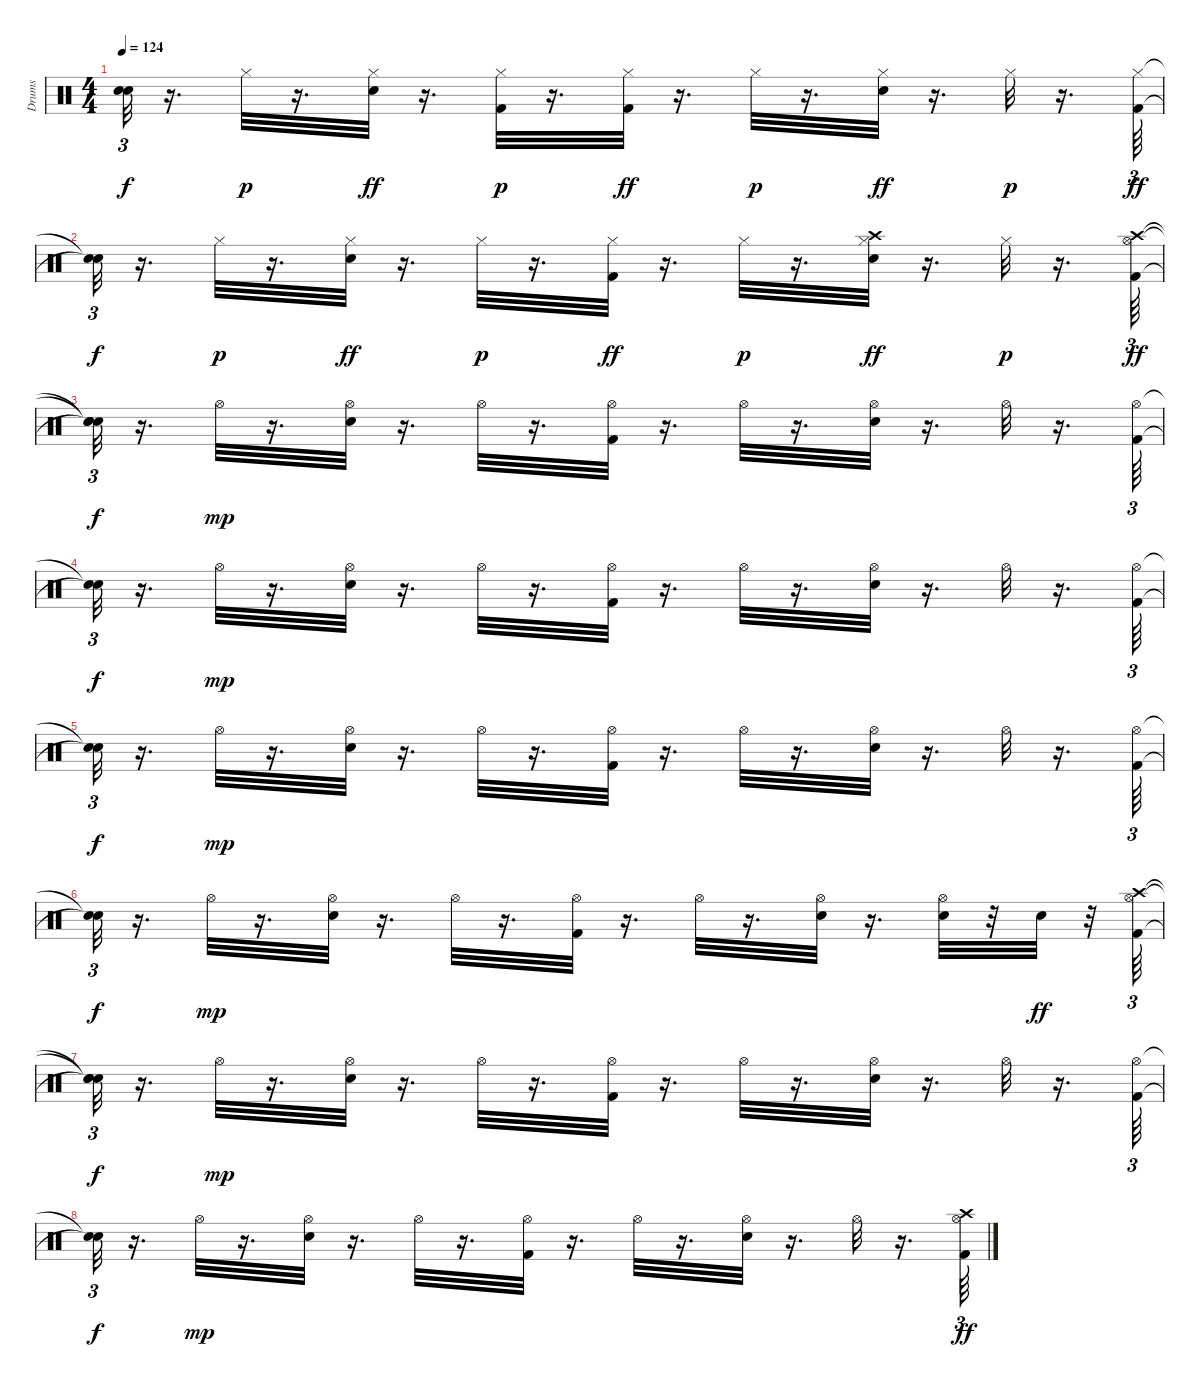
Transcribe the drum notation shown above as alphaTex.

\track ("Drums" "Drums") {instrument percussion}
\staff {score}
\articulation defaults
\ts (4 4)
\tempo 124
\clef neutral
\ks c
("Snare (hit)"{t} "Snare (hit)"{t}).32{tu (3 2) dy f} r.16{d} "Hi-Hat (closed)".32{dy p} r.16{d} ("Snare (hit) 2" "Hi-Hat (closed)").32{dy ff} r.16{d} ("Kick (hit) 2" "Hi-Hat (closed)").32{dy p} r.16{d} ("Kick (hit) 2" "Hi-Hat (closed)").32{dy ff} r.16{d} "Hi-Hat (closed)".32{dy p} r.16{d} ("Snare (hit) 2" "Hi-Hat (closed)").32{dy ff} r.16{d} "Hi-Hat (closed)".32{dy p} r.16{d} ("Kick (hit) 2" "Hi-Hat (closed)").64{tu (3 2) dy ff} |
("Snare (hit)"{t} "Snare (hit)"{t}).32{tu (3 2) dy f} r.16{d} "Hi-Hat (closed)".32{dy p} r.16{d} ("Snare (hit) 2" "Hi-Hat (closed)").32{dy ff} r.16{d} "Hi-Hat (closed)".32{dy p} r.16{d} ("Kick (hit) 2" "Hi-Hat (closed)").32{dy ff} r.16{d} "Hi-Hat (closed)".32{dy p} r.16{d} ("Snare (hit) 2" "Hi-Hat (closed)" "Crash high (hit)").32{dy ff} r.16{d} "Hi-Hat (closed)".32{dy p} r.16{d} ("Kick (hit) 2" "Hi-Hat (open)" "Crash high (hit)").64{tu (3 2) dy ff} |
("Snare (hit)"{t} "Snare (hit)"{t} "Snare (hit)"{t}).32{tu (3 2) dy f} r.16{d} "Hi-Hat (open)".32{dy mp} r.16{d} ("Snare (hit) 2" "Hi-Hat (open)").32 r.16{d} "Hi-Hat (open)".32 r.16{d} ("Kick (hit) 2" "Hi-Hat (open)").32 r.16{d} "Hi-Hat (open)".32 r.16{d} ("Snare (hit) 2" "Hi-Hat (open)").32 r.16{d} "Hi-Hat (open)".32 r.16{d} ("Kick (hit) 2" "Hi-Hat (open)").64{tu (3 2)} |
("Snare (hit)"{t} "Snare (hit)"{t}).32{tu (3 2) dy f} r.16{d} "Hi-Hat (open)".32{dy mp} r.16{d} ("Snare (hit) 2" "Hi-Hat (open)").32 r.16{d} "Hi-Hat (open)".32 r.16{d} ("Kick (hit) 2" "Hi-Hat (open)").32 r.16{d} "Hi-Hat (open)".32 r.16{d} ("Snare (hit) 2" "Hi-Hat (open)").32 r.16{d} "Hi-Hat (open)".32 r.16{d} ("Kick (hit) 2" "Hi-Hat (open)").64{tu (3 2)} |
("Snare (hit)"{t} "Snare (hit)"{t}).32{tu (3 2) dy f} r.16{d} "Hi-Hat (open)".32{dy mp} r.16{d} ("Snare (hit) 2" "Hi-Hat (open)").32 r.16{d} "Hi-Hat (open)".32 r.16{d} ("Kick (hit) 2" "Hi-Hat (open)").32 r.16{d} "Hi-Hat (open)".32 r.16{d} ("Snare (hit) 2" "Hi-Hat (open)").32 r.16{d} "Hi-Hat (open)".32 r.16{d} ("Kick (hit) 2" "Hi-Hat (open)").64{tu (3 2)} |
("Snare (hit)"{t} "Snare (hit)"{t}).32{tu (3 2) dy f} r.16{d} "Hi-Hat (open)".32{dy mp} r.16{d} ("Snare (hit) 2" "Hi-Hat (open)").32 r.16{d} "Hi-Hat (open)".32 r.16{d} ("Kick (hit) 2" "Hi-Hat (open)").32 r.16{d} "Hi-Hat (open)".32 r.16{d} ("Snare (hit) 2" "Hi-Hat (open)").32 r.16{d} ("Snare (hit) 2" "Hi-Hat (open)").32 r.32 "Snare (hit) 2".32{dy ff} r.32 ("Kick (hit) 2" "Hi-Hat (open)" "Crash high (hit)").64{tu (3 2)} |
("Snare (hit)"{t} "Snare (hit)"{t} "Snare (hit)"{t}).32{tu (3 2) dy f} r.16{d} "Hi-Hat (open)".32{dy mp} r.16{d} ("Snare (hit) 2" "Hi-Hat (open)").32 r.16{d} "Hi-Hat (open)".32 r.16{d} ("Kick (hit) 2" "Hi-Hat (open)").32 r.16{d} "Hi-Hat (open)".32 r.16{d} ("Snare (hit) 2" "Hi-Hat (open)").32 r.16{d} "Hi-Hat (open)".32 r.16{d} ("Kick (hit) 2" "Hi-Hat (open)").64{tu (3 2)} |
("Snare (hit)"{t} "Snare (hit)"{t}).32{tu (3 2) dy f} r.16{d} "Hi-Hat (open)".32{dy mp} r.16{d} ("Snare (hit) 2" "Hi-Hat (open)").32 r.16{d} "Hi-Hat (open)".32 r.16{d} ("Kick (hit) 2" "Hi-Hat (open)").32 r.16{d} "Hi-Hat (open)".32 r.16{d} ("Snare (hit) 2" "Hi-Hat (open)").32 r.16{d} "Hi-Hat (open)".32 r.16{d} ("Kick (hit) 2" "Hi-Hat (open)" "Crash high (hit)").64{tu (3 2) dy ff}
